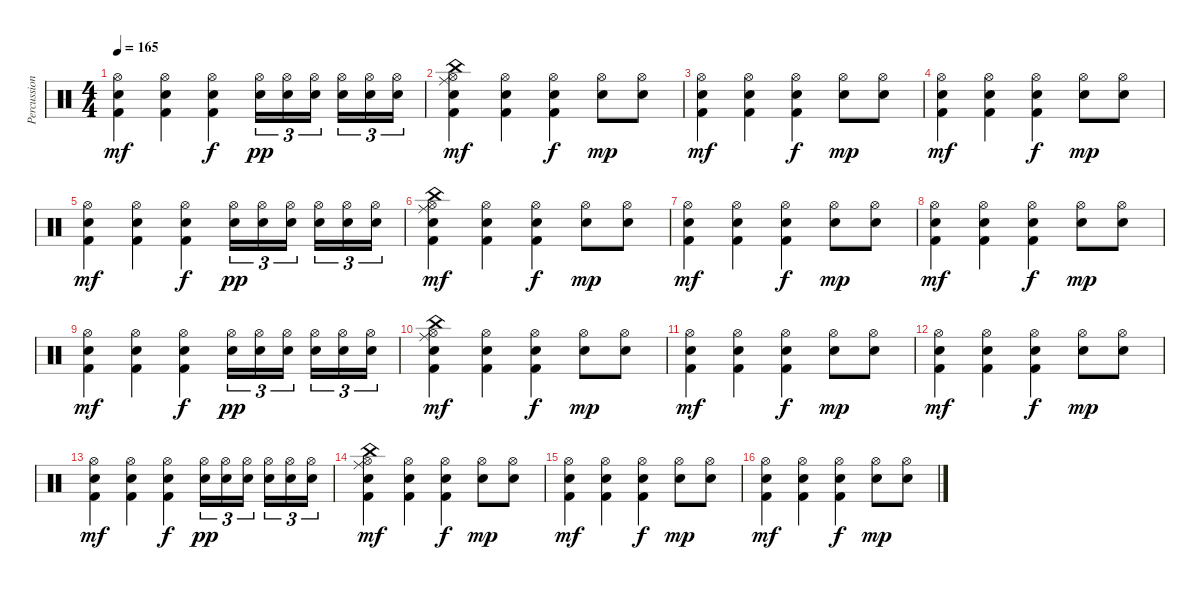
\track ("Percussion" "Percussion") {instrument percussion}
\staff {score}
\articulation defaults
\ts (4 4)
\tempo 165
\clef neutral
\ks c
("Hi-Hat (open)" "Electric Snare (hit)" "Kick (hit) 2").4{dy mf} ("Hi-Hat (open)" "Electric Snare (hit)" "Kick (hit) 2").4 ("Hi-Hat (open)" "Electric Snare (hit)" "Kick (hit) 2").4{dy f} ("Hi-Hat (open)" "Electric Snare (hit)").16{tu (3 2) dy pp} ("Hi-Hat (open)" "Electric Snare (hit)").16{tu (3 2)} ("Hi-Hat (open)" "Electric Snare (hit)").16{tu (3 2) beam splitsecondary} ("Hi-Hat (open)" "Electric Snare (hit)").16{tu (3 2)} ("Hi-Hat (open)" "Electric Snare (hit)").16{tu (3 2)} ("Hi-Hat (open)" "Electric Snare (hit)").16{tu (3 2)} |
("China (hit)" "Ride (middle)" "Hi-Hat (open)" "Electric Snare (hit)" "Kick (hit) 2").4{dy mf} ("Hi-Hat (open)" "Electric Snare (hit)" "Kick (hit) 2").4 ("Hi-Hat (open)" "Electric Snare (hit)" "Kick (hit) 2").4{dy f} ("Hi-Hat (open)" "Electric Snare (hit)").8{dy mp} ("Hi-Hat (open)" "Electric Snare (hit)").8 |
("Hi-Hat (open)" "Electric Snare (hit)" "Kick (hit) 2").4{dy mf} ("Hi-Hat (open)" "Electric Snare (hit)" "Kick (hit) 2").4 ("Hi-Hat (open)" "Electric Snare (hit)" "Kick (hit) 2").4{dy f} ("Hi-Hat (open)" "Electric Snare (hit)").8{dy mp} ("Hi-Hat (open)" "Electric Snare (hit)").8 |
("Hi-Hat (open)" "Electric Snare (hit)" "Kick (hit) 2").4{dy mf} ("Hi-Hat (open)" "Electric Snare (hit)" "Kick (hit) 2").4 ("Hi-Hat (open)" "Electric Snare (hit)" "Kick (hit) 2").4{dy f} ("Hi-Hat (open)" "Electric Snare (hit)").8{dy mp} ("Hi-Hat (open)" "Electric Snare (hit)").8 |
("Hi-Hat (open)" "Electric Snare (hit)" "Kick (hit) 2").4{dy mf} ("Hi-Hat (open)" "Electric Snare (hit)" "Kick (hit) 2").4 ("Hi-Hat (open)" "Electric Snare (hit)" "Kick (hit) 2").4{dy f} ("Hi-Hat (open)" "Electric Snare (hit)").16{tu (3 2) dy pp} ("Hi-Hat (open)" "Electric Snare (hit)").16{tu (3 2)} ("Hi-Hat (open)" "Electric Snare (hit)").16{tu (3 2) beam splitsecondary} ("Hi-Hat (open)" "Electric Snare (hit)").16{tu (3 2)} ("Hi-Hat (open)" "Electric Snare (hit)").16{tu (3 2)} ("Hi-Hat (open)" "Electric Snare (hit)").16{tu (3 2)} |
("China (hit)" "Ride (middle)" "Hi-Hat (open)" "Electric Snare (hit)" "Kick (hit) 2").4{dy mf} ("Hi-Hat (open)" "Electric Snare (hit)" "Kick (hit) 2").4 ("Hi-Hat (open)" "Electric Snare (hit)" "Kick (hit) 2").4{dy f} ("Hi-Hat (open)" "Electric Snare (hit)").8{dy mp} ("Hi-Hat (open)" "Electric Snare (hit)").8 |
("Hi-Hat (open)" "Electric Snare (hit)" "Kick (hit) 2").4{dy mf} ("Hi-Hat (open)" "Electric Snare (hit)" "Kick (hit) 2").4 ("Hi-Hat (open)" "Electric Snare (hit)" "Kick (hit) 2").4{dy f} ("Hi-Hat (open)" "Electric Snare (hit)").8{dy mp} ("Hi-Hat (open)" "Electric Snare (hit)").8 |
("Hi-Hat (open)" "Electric Snare (hit)" "Kick (hit) 2").4{dy mf} ("Hi-Hat (open)" "Electric Snare (hit)" "Kick (hit) 2").4 ("Hi-Hat (open)" "Electric Snare (hit)" "Kick (hit) 2").4{dy f} ("Hi-Hat (open)" "Electric Snare (hit)").8{dy mp} ("Hi-Hat (open)" "Electric Snare (hit)").8 |
("Hi-Hat (open)" "Electric Snare (hit)" "Kick (hit) 2").4{dy mf} ("Hi-Hat (open)" "Electric Snare (hit)" "Kick (hit) 2").4 ("Hi-Hat (open)" "Electric Snare (hit)" "Kick (hit) 2").4{dy f} ("Hi-Hat (open)" "Electric Snare (hit)").16{tu (3 2) dy pp} ("Hi-Hat (open)" "Electric Snare (hit)").16{tu (3 2)} ("Hi-Hat (open)" "Electric Snare (hit)").16{tu (3 2) beam splitsecondary} ("Hi-Hat (open)" "Electric Snare (hit)").16{tu (3 2)} ("Hi-Hat (open)" "Electric Snare (hit)").16{tu (3 2)} ("Hi-Hat (open)" "Electric Snare (hit)").16{tu (3 2)} |
("China (hit)" "Ride (middle)" "Hi-Hat (open)" "Electric Snare (hit)" "Kick (hit) 2").4{dy mf} ("Hi-Hat (open)" "Electric Snare (hit)" "Kick (hit) 2").4 ("Hi-Hat (open)" "Electric Snare (hit)" "Kick (hit) 2").4{dy f} ("Hi-Hat (open)" "Electric Snare (hit)").8{dy mp} ("Hi-Hat (open)" "Electric Snare (hit)").8 |
("Hi-Hat (open)" "Electric Snare (hit)" "Kick (hit) 2").4{dy mf} ("Hi-Hat (open)" "Electric Snare (hit)" "Kick (hit) 2").4 ("Hi-Hat (open)" "Electric Snare (hit)" "Kick (hit) 2").4{dy f} ("Hi-Hat (open)" "Electric Snare (hit)").8{dy mp} ("Hi-Hat (open)" "Electric Snare (hit)").8 |
("Hi-Hat (open)" "Electric Snare (hit)" "Kick (hit) 2").4{dy mf} ("Hi-Hat (open)" "Electric Snare (hit)" "Kick (hit) 2").4 ("Hi-Hat (open)" "Electric Snare (hit)" "Kick (hit) 2").4{dy f} ("Hi-Hat (open)" "Electric Snare (hit)").8{dy mp} ("Hi-Hat (open)" "Electric Snare (hit)").8 |
("Hi-Hat (open)" "Electric Snare (hit)" "Kick (hit) 2").4{dy mf} ("Hi-Hat (open)" "Electric Snare (hit)" "Kick (hit) 2").4 ("Hi-Hat (open)" "Electric Snare (hit)" "Kick (hit) 2").4{dy f} ("Hi-Hat (open)" "Electric Snare (hit)").16{tu (3 2) dy pp} ("Hi-Hat (open)" "Electric Snare (hit)").16{tu (3 2)} ("Hi-Hat (open)" "Electric Snare (hit)").16{tu (3 2) beam splitsecondary} ("Hi-Hat (open)" "Electric Snare (hit)").16{tu (3 2)} ("Hi-Hat (open)" "Electric Snare (hit)").16{tu (3 2)} ("Hi-Hat (open)" "Electric Snare (hit)").16{tu (3 2)} |
("China (hit)" "Ride (middle)" "Hi-Hat (open)" "Electric Snare (hit)" "Kick (hit) 2").4{dy mf} ("Hi-Hat (open)" "Electric Snare (hit)" "Kick (hit) 2").4 ("Hi-Hat (open)" "Electric Snare (hit)" "Kick (hit) 2").4{dy f} ("Hi-Hat (open)" "Electric Snare (hit)").8{dy mp} ("Hi-Hat (open)" "Electric Snare (hit)").8 |
("Hi-Hat (open)" "Electric Snare (hit)" "Kick (hit) 2").4{dy mf} ("Hi-Hat (open)" "Electric Snare (hit)" "Kick (hit) 2").4 ("Hi-Hat (open)" "Electric Snare (hit)" "Kick (hit) 2").4{dy f} ("Hi-Hat (open)" "Electric Snare (hit)").8{dy mp} ("Hi-Hat (open)" "Electric Snare (hit)").8 |
("Hi-Hat (open)" "Electric Snare (hit)" "Kick (hit) 2").4{dy mf} ("Hi-Hat (open)" "Electric Snare (hit)" "Kick (hit) 2").4 ("Hi-Hat (open)" "Electric Snare (hit)" "Kick (hit) 2").4{dy f} ("Hi-Hat (open)" "Electric Snare (hit)").8{dy mp} ("Hi-Hat (open)" "Electric Snare (hit)").8
